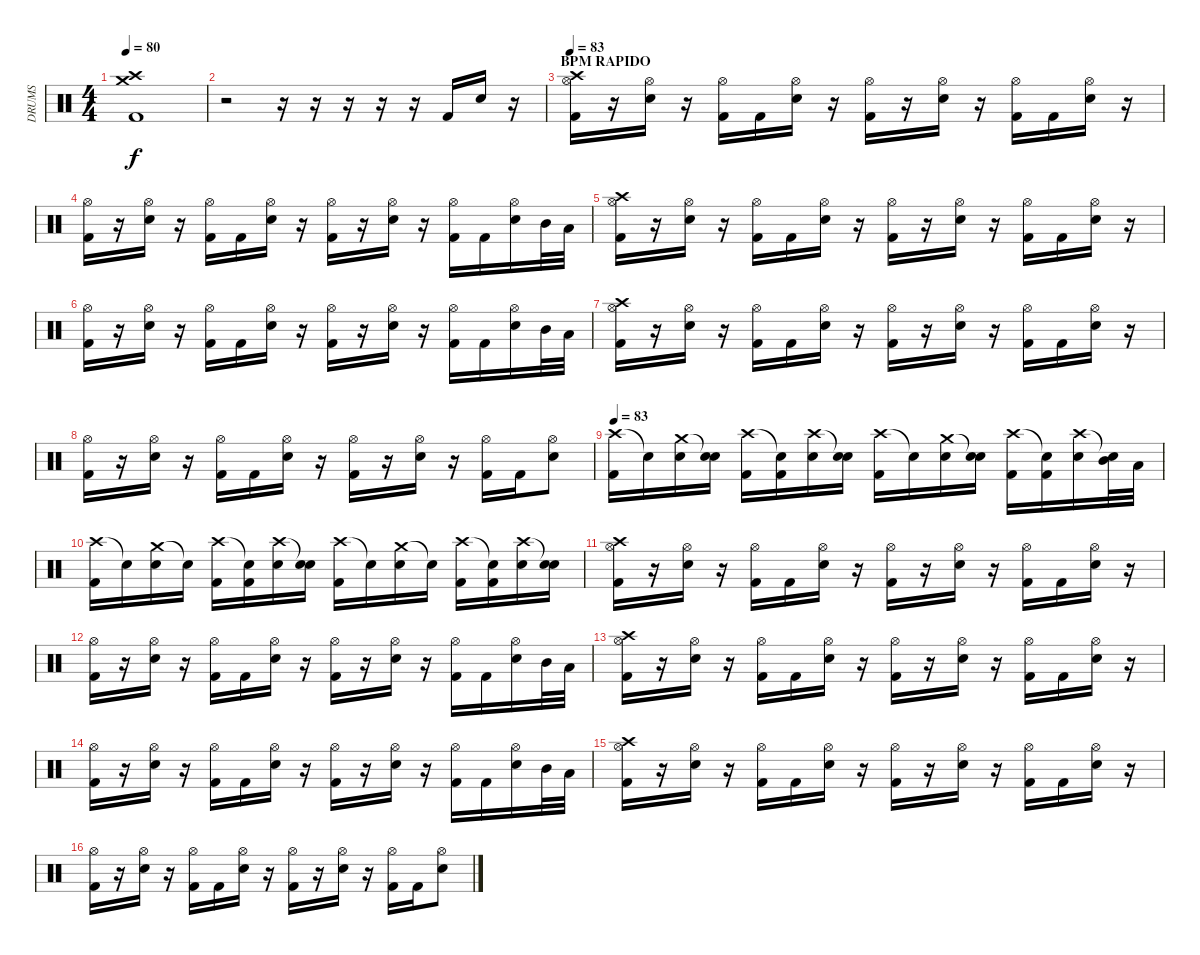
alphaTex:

\track ("DRUMS" "DRUMS") {instrument percussion}
\staff {score}
\articulation defaults
\ts (4 4)
\tempo 80
\clef neutral
\ks c
("Crash medium (hit)" "Crash high (hit)" "Kick (hit) 2").1{dy f} |
r.2 r.16 r.16 r.16 r.16 r.16 "Kick (hit) 2".16 "Snare (hit) 2".16 r.16 |
\section ("" "BPM RAPIDO")
\tempo 83
("Crash high (hit)" "Hi-Hat (open)" "Kick (hit) 2").16 r.16 ("Hi-Hat (open)" "Snare (hit) 2").16 r.16 ("Hi-Hat (open)" "Kick (hit) 2").16 "Kick (hit) 2".16 ("Hi-Hat (open)" "Snare (hit) 2").16 r.16 ("Hi-Hat (open)" "Kick (hit) 2").16 r.16 ("Hi-Hat (open)" "Snare (hit) 2").16 r.16 ("Hi-Hat (open)" "Kick (hit) 2").16 "Kick (hit) 2".16 ("Hi-Hat (open)" "Snare (hit) 2").16 r.16 |
("Hi-Hat (open)" "Kick (hit) 2").16 r.16 ("Hi-Hat (open)" "Snare (hit) 2").16 r.16 ("Hi-Hat (open)" "Kick (hit) 2").16 "Kick (hit) 2".16 ("Hi-Hat (open)" "Snare (hit) 2").16 r.16 ("Hi-Hat (open)" "Kick (hit) 2").16 r.16 ("Hi-Hat (open)" "Snare (hit) 2").16 r.16 ("Hi-Hat (open)" "Kick (hit) 2").16 "Kick (hit) 2".16 ("Hi-Hat (open)" "Snare (hit) 2").16 "Mid Tom (hit)".32 "Low Tom (hit)".32 |
("Crash high (hit)" "Hi-Hat (open)" "Kick (hit) 2").16 r.16 ("Hi-Hat (open)" "Snare (hit) 2").16 r.16 ("Hi-Hat (open)" "Kick (hit) 2").16 "Kick (hit) 2".16 ("Hi-Hat (open)" "Snare (hit) 2").16 r.16 ("Hi-Hat (open)" "Kick (hit) 2").16 r.16 ("Hi-Hat (open)" "Snare (hit) 2").16 r.16 ("Hi-Hat (open)" "Kick (hit) 2").16 "Kick (hit) 2".16 ("Hi-Hat (open)" "Snare (hit) 2").16 r.16 |
("Hi-Hat (open)" "Kick (hit) 2").16 r.16 ("Hi-Hat (open)" "Snare (hit) 2").16 r.16 ("Hi-Hat (open)" "Kick (hit) 2").16 "Kick (hit) 2".16 ("Hi-Hat (open)" "Snare (hit) 2").16 r.16 ("Hi-Hat (open)" "Kick (hit) 2").16 r.16 ("Hi-Hat (open)" "Snare (hit) 2").16 r.16 ("Hi-Hat (open)" "Kick (hit) 2").16 "Kick (hit) 2".16 ("Hi-Hat (open)" "Snare (hit) 2").16 "Mid Tom (hit)".32 "Low Tom (hit)".32 |
("Crash high (hit)" "Hi-Hat (open)" "Kick (hit) 2").16 r.16 ("Hi-Hat (open)" "Snare (hit) 2").16 r.16 ("Hi-Hat (open)" "Kick (hit) 2").16 "Kick (hit) 2".16 ("Hi-Hat (open)" "Snare (hit) 2").16 r.16 ("Hi-Hat (open)" "Kick (hit) 2").16 r.16 ("Hi-Hat (open)" "Snare (hit) 2").16 r.16 ("Hi-Hat (open)" "Kick (hit) 2").16 "Kick (hit) 2".16 ("Hi-Hat (open)" "Snare (hit) 2").16 r.16 |
("Hi-Hat (open)" "Kick (hit) 2").16 r.16 ("Hi-Hat (open)" "Snare (hit) 2").16 r.16 ("Hi-Hat (open)" "Kick (hit) 2").16 "Kick (hit) 2".16 ("Hi-Hat (open)" "Snare (hit) 2").16 r.16 ("Hi-Hat (open)" "Kick (hit) 2").16 r.16 ("Hi-Hat (open)" "Snare (hit) 2").16 r.16 ("Hi-Hat (open)" "Kick (hit) 2").16 "Kick (hit) 2".16 ("Hi-Hat (open)" "Snare (hit) 2").8 |
\tempo 83
("Crash high (hit)" "Kick (hit) 2").16 "Snare (hit)"{t}.16 ("Crash medium (hit)" "Snare (hit) 2").16 ("Snare (hit)"{t} "Snare (hit) 2").16 ("Crash high (hit)" "Kick (hit) 2").16 ("Snare (hit)"{t} "Kick (hit) 2").16 ("Crash high (hit)" "Snare (hit) 2").16 ("Snare (hit)"{t} "Snare (hit) 2").16 ("Crash high (hit)" "Kick (hit) 2").16 "Snare (hit)"{t}.16 ("Crash medium (hit)" "Snare (hit) 2").16 ("Snare (hit)"{t} "Snare (hit) 2").16 ("Crash high (hit)" "Kick (hit) 2").16 ("Snare (hit)"{t} "Kick (hit) 2").16 ("Crash high (hit)" "Snare (hit) 2").16 ("Snare (hit)"{t} "Mid Tom (hit)").32 "Low Tom (hit)".32 |
("Crash high (hit)" "Kick (hit) 2").16 "Snare (hit)"{t}.16 ("Crash medium (hit)" "Snare (hit) 2").16 "Snare (hit)"{t}.16 ("Crash high (hit)" "Kick (hit) 2").16 ("Snare (hit)"{t} "Kick (hit) 2").16 ("Crash high (hit)" "Snare (hit) 2").16 ("Snare (hit)"{t} "Snare (hit) 2").16 ("Crash high (hit)" "Kick (hit) 2").16 "Snare (hit)"{t}.16 ("Crash medium (hit)" "Snare (hit) 2").16 "Snare (hit)"{t}.16 ("Crash high (hit)" "Kick (hit) 2").16 ("Snare (hit)"{t} "Kick (hit) 2").16 ("Crash high (hit)" "Snare (hit) 2").16 ("Snare (hit)"{t} "Snare (hit) 2").16 |
("Crash high (hit)" "Hi-Hat (open)" "Kick (hit) 2").16 r.16 ("Hi-Hat (open)" "Snare (hit) 2").16 r.16 ("Hi-Hat (open)" "Kick (hit) 2").16 "Kick (hit) 2".16 ("Hi-Hat (open)" "Snare (hit) 2").16 r.16 ("Hi-Hat (open)" "Kick (hit) 2").16 r.16 ("Hi-Hat (open)" "Snare (hit) 2").16 r.16 ("Hi-Hat (open)" "Kick (hit) 2").16 "Kick (hit) 2".16 ("Hi-Hat (open)" "Snare (hit) 2").16 r.16 |
("Hi-Hat (open)" "Kick (hit) 2").16 r.16 ("Hi-Hat (open)" "Snare (hit) 2").16 r.16 ("Hi-Hat (open)" "Kick (hit) 2").16 "Kick (hit) 2".16 ("Hi-Hat (open)" "Snare (hit) 2").16 r.16 ("Hi-Hat (open)" "Kick (hit) 2").16 r.16 ("Hi-Hat (open)" "Snare (hit) 2").16 r.16 ("Hi-Hat (open)" "Kick (hit) 2").16 "Kick (hit) 2".16 ("Hi-Hat (open)" "Snare (hit) 2").16 "Mid Tom (hit)".32 "Low Tom (hit)".32 |
("Crash high (hit)" "Hi-Hat (open)" "Kick (hit) 2").16 r.16 ("Hi-Hat (open)" "Snare (hit) 2").16 r.16 ("Hi-Hat (open)" "Kick (hit) 2").16 "Kick (hit) 2".16 ("Hi-Hat (open)" "Snare (hit) 2").16 r.16 ("Hi-Hat (open)" "Kick (hit) 2").16 r.16 ("Hi-Hat (open)" "Snare (hit) 2").16 r.16 ("Hi-Hat (open)" "Kick (hit) 2").16 "Kick (hit) 2".16 ("Hi-Hat (open)" "Snare (hit) 2").16 r.16 |
("Hi-Hat (open)" "Kick (hit) 2").16 r.16 ("Hi-Hat (open)" "Snare (hit) 2").16 r.16 ("Hi-Hat (open)" "Kick (hit) 2").16 "Kick (hit) 2".16 ("Hi-Hat (open)" "Snare (hit) 2").16 r.16 ("Hi-Hat (open)" "Kick (hit) 2").16 r.16 ("Hi-Hat (open)" "Snare (hit) 2").16 r.16 ("Hi-Hat (open)" "Kick (hit) 2").16 "Kick (hit) 2".16 ("Hi-Hat (open)" "Snare (hit) 2").16 "Mid Tom (hit)".32 "Low Tom (hit)".32 |
("Crash high (hit)" "Hi-Hat (open)" "Kick (hit) 2").16 r.16 ("Hi-Hat (open)" "Snare (hit) 2").16 r.16 ("Hi-Hat (open)" "Kick (hit) 2").16 "Kick (hit) 2".16 ("Hi-Hat (open)" "Snare (hit) 2").16 r.16 ("Hi-Hat (open)" "Kick (hit) 2").16 r.16 ("Hi-Hat (open)" "Snare (hit) 2").16 r.16 ("Hi-Hat (open)" "Kick (hit) 2").16 "Kick (hit) 2".16 ("Hi-Hat (open)" "Snare (hit) 2").16 r.16 |
("Hi-Hat (open)" "Kick (hit) 2").16 r.16 ("Hi-Hat (open)" "Snare (hit) 2").16 r.16 ("Hi-Hat (open)" "Kick (hit) 2").16 "Kick (hit) 2".16 ("Hi-Hat (open)" "Snare (hit) 2").16 r.16 ("Hi-Hat (open)" "Kick (hit) 2").16 r.16 ("Hi-Hat (open)" "Snare (hit) 2").16 r.16 ("Hi-Hat (open)" "Kick (hit) 2").16 "Kick (hit) 2".16 ("Hi-Hat (open)" "Snare (hit) 2").8
